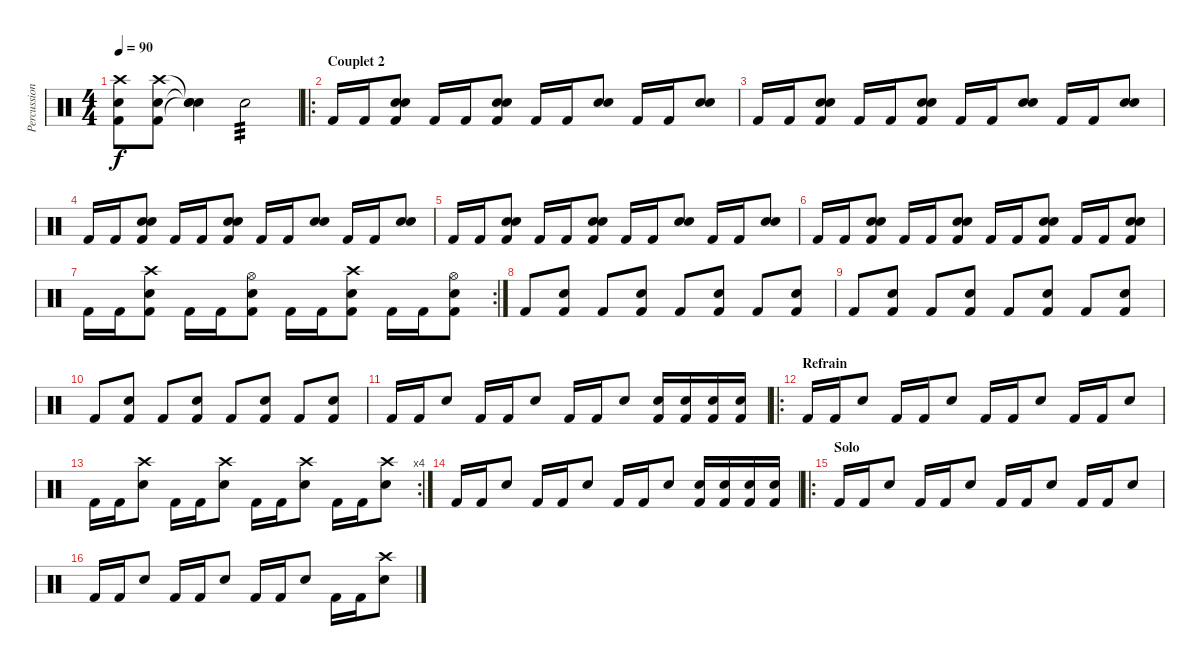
\track ("Percussions" "Percussion") {instrument percussion}
\staff {score}
\articulation defaults
\ts (4 4)
\tempo 90
\clef neutral
\ks c
("Crash high (hit)" "Electric Snare (hit)" "Kick (hit) 2").8{dy f} ("Crash high (hit)" "Electric Snare (hit)" "Kick (hit) 2").8 ("Snare (hit)"{t} "Snare (hit)"{t} "Snare (hit) 2"{t}).4 "Snare (hit) 2".2{tp 3} |
\ro
\section ("" "Couplet 2")
"Kick (hit) 2".16 "Kick (hit) 2".16 ("Electric Snare (hit)" "Snare (hit) 2" "Kick (hit) 2").8 "Kick (hit) 2".16 "Kick (hit) 2".16 ("Electric Snare (hit)" "Snare (hit) 2" "Kick (hit) 2").8 "Kick (hit) 2".16 "Kick (hit) 2".16 ("Electric Snare (hit)" "Snare (hit) 2").8 "Kick (hit) 2".16 "Kick (hit) 2".16 ("Electric Snare (hit)" "Snare (hit) 2").8 |
"Kick (hit) 2".16 "Kick (hit) 2".16 ("Electric Snare (hit)" "Snare (hit) 2" "Kick (hit) 2").8 "Kick (hit) 2".16 "Kick (hit) 2".16 ("Electric Snare (hit)" "Snare (hit) 2" "Kick (hit) 2").8 "Kick (hit) 2".16 "Kick (hit) 2".16 ("Electric Snare (hit)" "Snare (hit) 2").8 "Kick (hit) 2".16 "Kick (hit) 2".16 ("Electric Snare (hit)" "Snare (hit) 2").8 |
"Kick (hit) 2".16 "Kick (hit) 2".16 ("Electric Snare (hit)" "Snare (hit) 2" "Kick (hit) 2").8 "Kick (hit) 2".16 "Kick (hit) 2".16 ("Electric Snare (hit)" "Snare (hit) 2" "Kick (hit) 2").8 "Kick (hit) 2".16 "Kick (hit) 2".16 ("Electric Snare (hit)" "Snare (hit) 2").8 "Kick (hit) 2".16 "Kick (hit) 2".16 ("Electric Snare (hit)" "Snare (hit) 2").8 |
"Kick (hit) 2".16 "Kick (hit) 2".16 ("Electric Snare (hit)" "Snare (hit) 2" "Kick (hit) 2").8 "Kick (hit) 2".16 "Kick (hit) 2".16 ("Electric Snare (hit)" "Snare (hit) 2" "Kick (hit) 2").8 "Kick (hit) 2".16 "Kick (hit) 2".16 ("Electric Snare (hit)" "Snare (hit) 2").8 "Kick (hit) 2".16 "Kick (hit) 2".16 ("Electric Snare (hit)" "Snare (hit) 2").8 |
"Kick (hit) 2".16 "Kick (hit) 2".16 ("Electric Snare (hit)" "Snare (hit) 2" "Kick (hit) 2").8 "Kick (hit) 2".16 "Kick (hit) 2".16 ("Electric Snare (hit)" "Snare (hit) 2" "Kick (hit) 2").8 "Kick (hit) 2".16 "Kick (hit) 2".16 ("Electric Snare (hit)" "Snare (hit) 2" "Kick (hit) 2").8 "Kick (hit) 2".16 "Kick (hit) 2".16 ("Electric Snare (hit)" "Snare (hit) 2" "Kick (hit) 2").8 |
\rc 2 "Kick (hit) 2".16 "Kick (hit) 2".16
("Crash high (hit)" "Snare (hit) 2" "Kick (hit) 2").8 "Kick (hit) 2".16 "Kick (hit) 2".16 ("Hi-Hat (open)" "Snare (hit) 2" "Kick (hit) 2").8 "Kick (hit) 2".16 "Kick (hit) 2".16 ("Crash high (hit)" "Snare (hit) 2" "Kick (hit) 2").8 "Kick (hit) 2".16 "Kick (hit) 2".16 ("Hi-Hat (open)" "Snare (hit) 2" "Kick (hit) 2").8 |
"Kick (hit) 2".8 ("Electric Snare (hit)" "Kick (hit) 2").8 "Kick (hit) 2".8 ("Electric Snare (hit)" "Kick (hit) 2").8 "Kick (hit) 2".8 ("Electric Snare (hit)" "Kick (hit) 2").8 "Kick (hit) 2".8 ("Electric Snare (hit)" "Kick (hit) 2").8 |
"Kick (hit) 2".8 ("Electric Snare (hit)" "Kick (hit) 2").8 "Kick (hit) 2".8 ("Electric Snare (hit)" "Kick (hit) 2").8 "Kick (hit) 2".8 ("Electric Snare (hit)" "Kick (hit) 2").8 "Kick (hit) 2".8 ("Electric Snare (hit)" "Kick (hit) 2").8 |
"Kick (hit) 2".8 ("Electric Snare (hit)" "Kick (hit) 2").8 "Kick (hit) 2".8 ("Electric Snare (hit)" "Kick (hit) 2").8 "Kick (hit) 2".8 ("Electric Snare (hit)" "Kick (hit) 2").8 "Kick (hit) 2".8 ("Electric Snare (hit)" "Kick (hit) 2").8 |
"Kick (hit) 2".16 "Kick (hit) 2".16 "Electric Snare (hit)".8 "Kick (hit) 2".16 "Kick (hit) 2".16 "Electric Snare (hit)".8 "Kick (hit) 2".16 "Kick (hit) 2".16 "Electric Snare (hit)".8 ("Electric Snare (hit)" "Kick (hit) 2").16 ("Electric Snare (hit)" "Kick (hit) 2").16 ("Electric Snare (hit)" "Kick (hit) 2").16 ("Electric Snare (hit)" "Kick (hit) 2").16 |
\ro
\section ("" "Refrain")
"Kick (hit) 2".16 "Kick (hit) 2".16 "Electric Snare (hit)".8 "Kick (hit) 2".16 "Kick (hit) 2".16 "Electric Snare (hit)".8 "Kick (hit) 2".16 "Kick (hit) 2".16 "Electric Snare (hit)".8 "Kick (hit) 2".16 "Kick (hit) 2".16 "Electric Snare (hit)".8 |
\rc 4 "Kick (hit) 2".16 "Kick (hit) 2".16
("Crash high (hit)" "Electric Snare (hit)").8 "Kick (hit) 2".16 "Kick (hit) 2".16 ("Crash high (hit)" "Electric Snare (hit)").8 "Kick (hit) 2".16 "Kick (hit) 2".16 ("Crash high (hit)" "Electric Snare (hit)").8 "Kick (hit) 2".16 "Kick (hit) 2".16 ("Crash high (hit)" "Electric Snare (hit)").8 |
"Kick (hit) 2".16 "Kick (hit) 2".16 "Electric Snare (hit)".8 "Kick (hit) 2".16 "Kick (hit) 2".16 "Electric Snare (hit)".8 "Kick (hit) 2".16 "Kick (hit) 2".16 "Electric Snare (hit)".8 ("Electric Snare (hit)" "Kick (hit) 2").16 ("Electric Snare (hit)" "Kick (hit) 2").16 ("Electric Snare (hit)" "Kick (hit) 2").16 ("Electric Snare (hit)" "Kick (hit) 2").16 |
\ro
\section ("" "Solo")
"Kick (hit) 2".16 "Kick (hit) 2".16 "Electric Snare (hit)".8 "Kick (hit) 2".16 "Kick (hit) 2".16 "Electric Snare (hit)".8 "Kick (hit) 2".16 "Kick (hit) 2".16 "Electric Snare (hit)".8 "Kick (hit) 2".16 "Kick (hit) 2".16 "Electric Snare (hit)".8 |
"Kick (hit) 2".16 "Kick (hit) 2".16 "Electric Snare (hit)".8 "Kick (hit) 2".16 "Kick (hit) 2".16 "Electric Snare (hit)".8 "Kick (hit) 2".16 "Kick (hit) 2".16 "Electric Snare (hit)".8 "Kick (hit) 2".16 "Kick (hit) 2".16 ("Crash high (hit)" "Electric Snare (hit)").8
